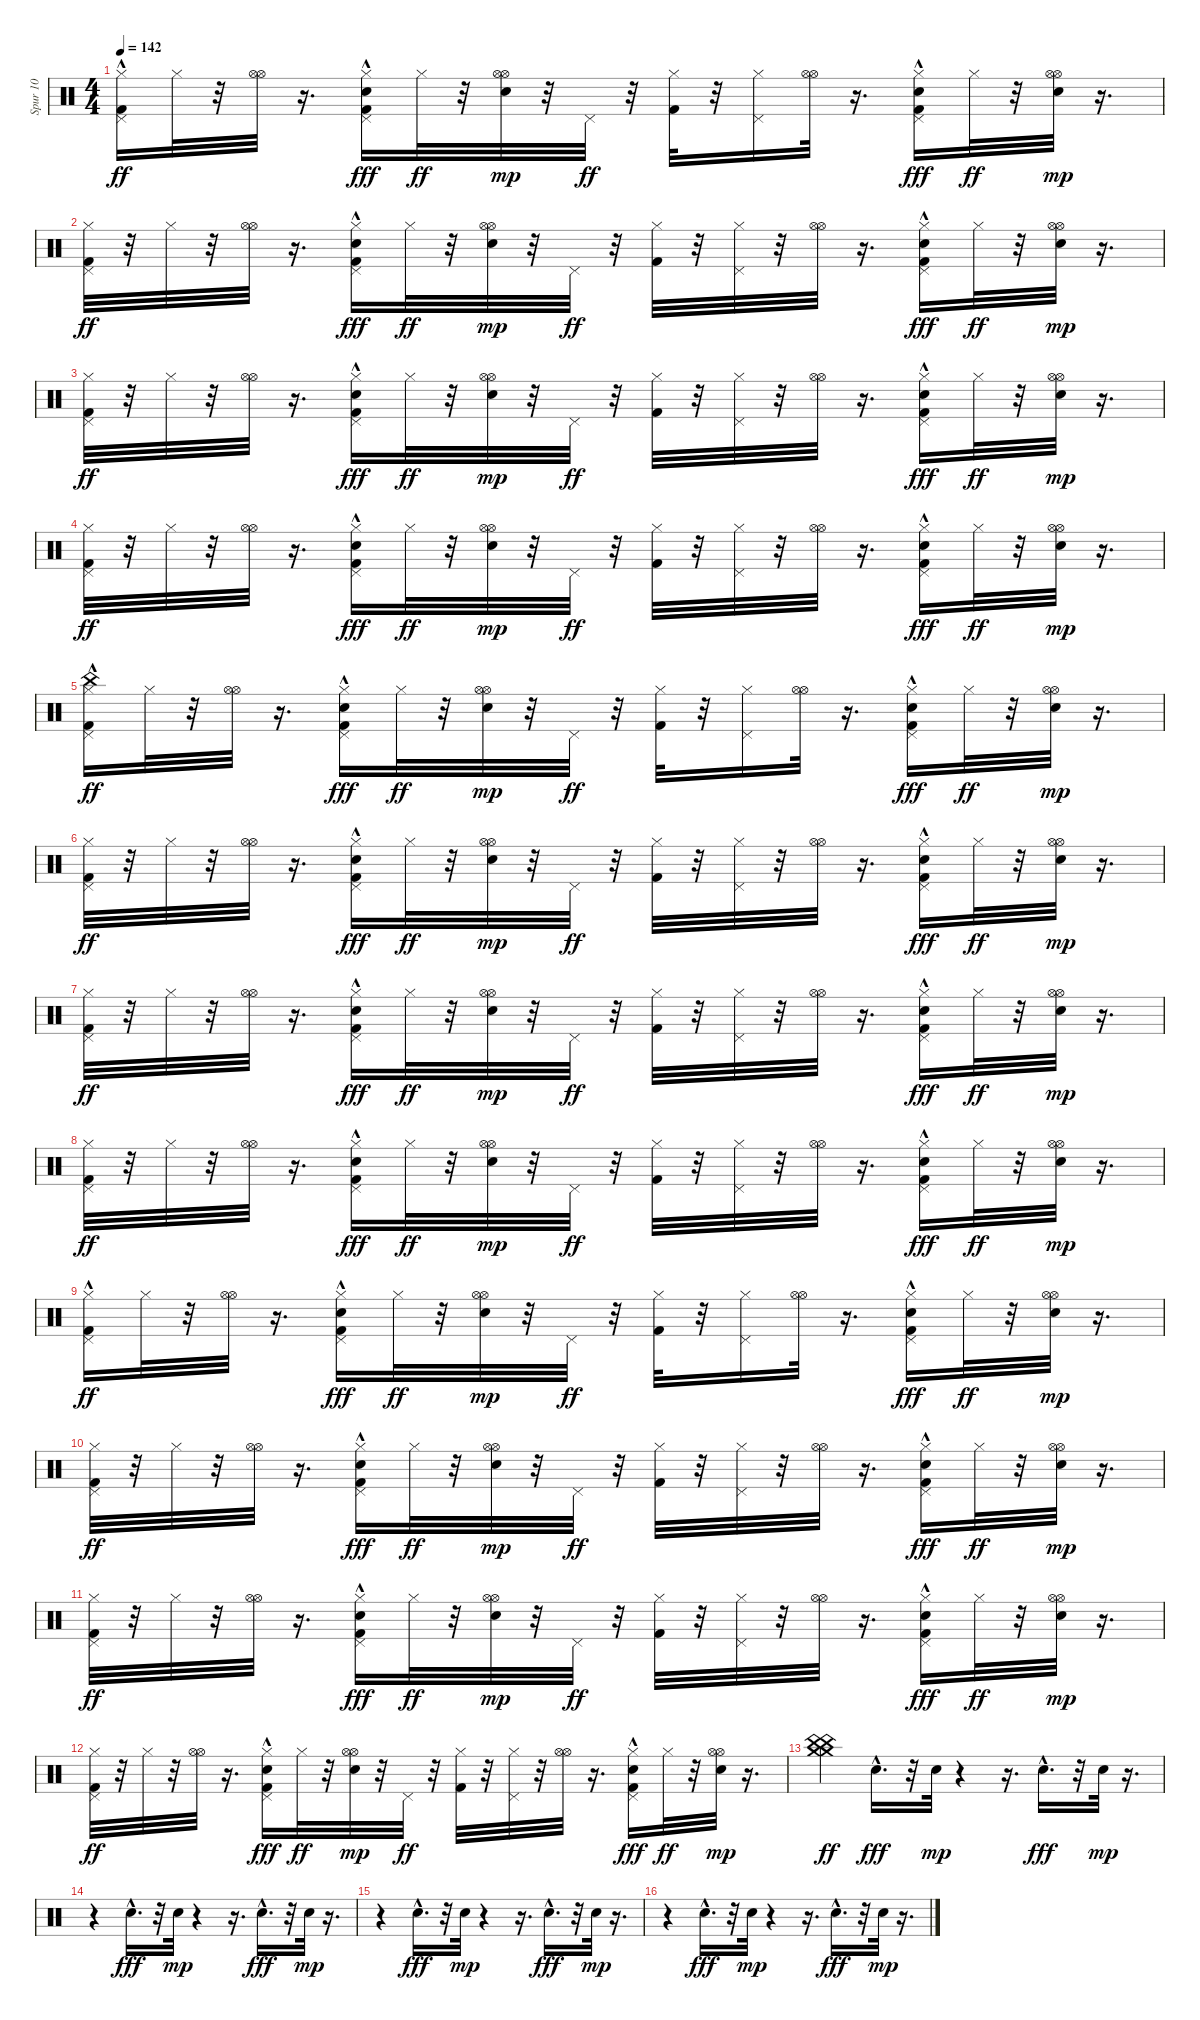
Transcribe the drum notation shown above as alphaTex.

\track ("Spur 10" "Spur 10") {instrument percussion}
\staff {score}
\articulation defaults
\ts (4 4)
\tempo 142
\clef neutral
\ks c
("Kick (hit) 2"{hac} "Hi-Hat (closed)" "Pedal Hi-Hat (hit)").16{dy ff} "Hi-Hat (closed)".32 r.32 ("Hi-Hat (open)" "Hi-Hat (open)").32 r.16{d} ("Kick (hit) 2" "Hi-Hat (closed)" "Pedal Hi-Hat (hit)" "Hand Clap (hit)"{hac}).16{dy fff balance 16} "Hi-Hat (closed)".32{dy ff} r.32 ("Hi-Hat (open)" "Hi-Hat (open)" "Hand Clap (hit)").32{dy mp balance 0} r.32 "Pedal Hi-Hat (hit)".32{dy ff} r.32 ("Kick (hit) 2" "Hi-Hat (closed)").32 r.32 ("Hi-Hat (closed)" "Pedal Hi-Hat (hit)").16 ("Hi-Hat (open)" "Hi-Hat (open)").32 r.16{d} ("Kick (hit) 2" "Hi-Hat (closed)" "Pedal Hi-Hat (hit)" "Hand Clap (hit)"{hac}).16{dy fff balance 16} "Hi-Hat (closed)".32{dy ff} r.32 ("Hi-Hat (open)" "Hi-Hat (open)" "Hand Clap (hit)").32{dy mp balance 0} r.16{d} |
("Kick (hit) 2" "Hi-Hat (closed)" "Pedal Hi-Hat (hit)").32{dy ff} r.32 "Hi-Hat (closed)".32 r.32 ("Hi-Hat (open)" "Hi-Hat (open)").32 r.16{d} ("Kick (hit) 2" "Hi-Hat (closed)" "Pedal Hi-Hat (hit)" "Hand Clap (hit)"{hac}).16{dy fff balance 16} "Hi-Hat (closed)".32{dy ff} r.32 ("Hi-Hat (open)" "Hi-Hat (open)" "Hand Clap (hit)").32{dy mp balance 0} r.32 "Pedal Hi-Hat (hit)".32{dy ff} r.32 ("Kick (hit) 2" "Hi-Hat (closed)").32 r.32 ("Hi-Hat (closed)" "Pedal Hi-Hat (hit)").32 r.32 ("Hi-Hat (open)" "Hi-Hat (open)").32 r.16{d} ("Kick (hit) 2" "Hi-Hat (closed)" "Pedal Hi-Hat (hit)" "Hand Clap (hit)"{hac}).16{dy fff balance 16} "Hi-Hat (closed)".32{dy ff} r.32 ("Hi-Hat (open)" "Hi-Hat (open)" "Hand Clap (hit)").32{dy mp balance 0} r.16{d} |
("Kick (hit) 2" "Hi-Hat (closed)" "Pedal Hi-Hat (hit)").32{dy ff} r.32 "Hi-Hat (closed)".32 r.32 ("Hi-Hat (open)" "Hi-Hat (open)").32 r.16{d} ("Kick (hit) 2" "Hi-Hat (closed)" "Pedal Hi-Hat (hit)" "Hand Clap (hit)"{hac}).16{dy fff balance 16} "Hi-Hat (closed)".32{dy ff} r.32 ("Hi-Hat (open)" "Hi-Hat (open)" "Hand Clap (hit)").32{dy mp balance 0} r.32 "Pedal Hi-Hat (hit)".32{dy ff} r.32 ("Kick (hit) 2" "Hi-Hat (closed)").32 r.32 ("Hi-Hat (closed)" "Pedal Hi-Hat (hit)").32 r.32 ("Hi-Hat (open)" "Hi-Hat (open)").32 r.16{d} ("Kick (hit) 2" "Hi-Hat (closed)" "Pedal Hi-Hat (hit)" "Hand Clap (hit)"{hac}).16{dy fff balance 16} "Hi-Hat (closed)".32{dy ff} r.32 ("Hi-Hat (open)" "Hi-Hat (open)" "Hand Clap (hit)").32{dy mp balance 0} r.16{d} |
("Kick (hit) 2" "Hi-Hat (closed)" "Pedal Hi-Hat (hit)").32{dy ff} r.32 "Hi-Hat (closed)".32 r.32 ("Hi-Hat (open)" "Hi-Hat (open)").32 r.16{d} ("Kick (hit) 2" "Hi-Hat (closed)" "Pedal Hi-Hat (hit)" "Hand Clap (hit)"{hac}).16{dy fff balance 16} "Hi-Hat (closed)".32{dy ff} r.32 ("Hi-Hat (open)" "Hi-Hat (open)" "Hand Clap (hit)").32{dy mp balance 0} r.32 "Pedal Hi-Hat (hit)".32{dy ff} r.32 ("Kick (hit) 2" "Hi-Hat (closed)").32 r.32 ("Hi-Hat (closed)" "Pedal Hi-Hat (hit)").32 r.32 ("Hi-Hat (open)" "Hi-Hat (open)").32 r.16{d} ("Kick (hit) 2" "Hi-Hat (closed)" "Pedal Hi-Hat (hit)" "Hand Clap (hit)"{hac}).16{dy fff balance 16} "Hi-Hat (closed)".32{dy ff} r.32 ("Hi-Hat (open)" "Hi-Hat (open)" "Hand Clap (hit)").32{dy mp balance 0} r.16{d} |
("Kick (hit) 2"{hac} "Hi-Hat (closed)" "Pedal Hi-Hat (hit)" "China (hit)").16{dy ff} "Hi-Hat (closed)".32 r.32 ("Hi-Hat (open)" "Hi-Hat (open)").32 r.16{d} ("Kick (hit) 2" "Hi-Hat (closed)" "Pedal Hi-Hat (hit)" "Hand Clap (hit)"{hac}).16{dy fff balance 16} "Hi-Hat (closed)".32{dy ff} r.32 ("Hi-Hat (open)" "Hi-Hat (open)" "Hand Clap (hit)").32{dy mp balance 0} r.32 "Pedal Hi-Hat (hit)".32{dy ff} r.32 ("Kick (hit) 2" "Hi-Hat (closed)").32 r.32 ("Hi-Hat (closed)" "Pedal Hi-Hat (hit)").16 ("Hi-Hat (open)" "Hi-Hat (open)").32 r.16{d} ("Kick (hit) 2" "Hi-Hat (closed)" "Pedal Hi-Hat (hit)" "Hand Clap (hit)"{hac}).16{dy fff balance 16} "Hi-Hat (closed)".32{dy ff} r.32 ("Hi-Hat (open)" "Hi-Hat (open)" "Hand Clap (hit)").32{dy mp balance 0} r.16{d} |
("Kick (hit) 2" "Hi-Hat (closed)" "Pedal Hi-Hat (hit)").32{dy ff} r.32 "Hi-Hat (closed)".32 r.32 ("Hi-Hat (open)" "Hi-Hat (open)").32 r.16{d} ("Kick (hit) 2" "Hi-Hat (closed)" "Pedal Hi-Hat (hit)" "Hand Clap (hit)"{hac}).16{dy fff balance 16} "Hi-Hat (closed)".32{dy ff} r.32 ("Hi-Hat (open)" "Hi-Hat (open)" "Hand Clap (hit)").32{dy mp balance 0} r.32 "Pedal Hi-Hat (hit)".32{dy ff} r.32 ("Kick (hit) 2" "Hi-Hat (closed)").32 r.32 ("Hi-Hat (closed)" "Pedal Hi-Hat (hit)").32 r.32 ("Hi-Hat (open)" "Hi-Hat (open)").32 r.16{d} ("Kick (hit) 2" "Hi-Hat (closed)" "Pedal Hi-Hat (hit)" "Hand Clap (hit)"{hac}).16{dy fff balance 16} "Hi-Hat (closed)".32{dy ff} r.32 ("Hi-Hat (open)" "Hi-Hat (open)" "Hand Clap (hit)").32{dy mp balance 0} r.16{d} |
("Kick (hit) 2" "Hi-Hat (closed)" "Pedal Hi-Hat (hit)").32{dy ff} r.32 "Hi-Hat (closed)".32 r.32 ("Hi-Hat (open)" "Hi-Hat (open)").32 r.16{d} ("Kick (hit) 2" "Hi-Hat (closed)" "Pedal Hi-Hat (hit)" "Hand Clap (hit)"{hac}).16{dy fff balance 16} "Hi-Hat (closed)".32{dy ff} r.32 ("Hi-Hat (open)" "Hi-Hat (open)" "Hand Clap (hit)").32{dy mp balance 0} r.32 "Pedal Hi-Hat (hit)".32{dy ff} r.32 ("Kick (hit) 2" "Hi-Hat (closed)").32 r.32 ("Hi-Hat (closed)" "Pedal Hi-Hat (hit)").32 r.32 ("Hi-Hat (open)" "Hi-Hat (open)").32 r.16{d} ("Kick (hit) 2" "Hi-Hat (closed)" "Pedal Hi-Hat (hit)" "Hand Clap (hit)"{hac}).16{dy fff balance 16} "Hi-Hat (closed)".32{dy ff} r.32 ("Hi-Hat (open)" "Hi-Hat (open)" "Hand Clap (hit)").32{dy mp balance 0} r.16{d} |
("Kick (hit) 2" "Hi-Hat (closed)" "Pedal Hi-Hat (hit)").32{dy ff} r.32 "Hi-Hat (closed)".32 r.32 ("Hi-Hat (open)" "Hi-Hat (open)").32 r.16{d} ("Kick (hit) 2" "Hi-Hat (closed)" "Pedal Hi-Hat (hit)" "Hand Clap (hit)"{hac}).16{dy fff balance 16} "Hi-Hat (closed)".32{dy ff} r.32 ("Hi-Hat (open)" "Hi-Hat (open)" "Hand Clap (hit)").32{dy mp balance 0} r.32 "Pedal Hi-Hat (hit)".32{dy ff} r.32 ("Kick (hit) 2" "Hi-Hat (closed)").32 r.32 ("Hi-Hat (closed)" "Pedal Hi-Hat (hit)").32 r.32 ("Hi-Hat (open)" "Hi-Hat (open)").32 r.16{d} ("Kick (hit) 2" "Hi-Hat (closed)" "Pedal Hi-Hat (hit)" "Hand Clap (hit)"{hac}).16{dy fff balance 16} "Hi-Hat (closed)".32{dy ff} r.32 ("Hi-Hat (open)" "Hi-Hat (open)" "Hand Clap (hit)").32{dy mp balance 0} r.16{d} |
("Kick (hit) 2"{hac} "Hi-Hat (closed)" "Pedal Hi-Hat (hit)").16{dy ff} "Hi-Hat (closed)".32 r.32 ("Hi-Hat (open)" "Hi-Hat (open)").32 r.16{d} ("Kick (hit) 2" "Hi-Hat (closed)" "Pedal Hi-Hat (hit)" "Hand Clap (hit)"{hac}).16{dy fff balance 16} "Hi-Hat (closed)".32{dy ff} r.32 ("Hi-Hat (open)" "Hi-Hat (open)" "Hand Clap (hit)").32{dy mp balance 0} r.32 "Pedal Hi-Hat (hit)".32{dy ff} r.32 ("Kick (hit) 2" "Hi-Hat (closed)").32 r.32 ("Hi-Hat (closed)" "Pedal Hi-Hat (hit)").16 ("Hi-Hat (open)" "Hi-Hat (open)").32 r.16{d} ("Kick (hit) 2" "Hi-Hat (closed)" "Pedal Hi-Hat (hit)" "Hand Clap (hit)"{hac}).16{dy fff balance 16} "Hi-Hat (closed)".32{dy ff} r.32 ("Hi-Hat (open)" "Hi-Hat (open)" "Hand Clap (hit)").32{dy mp balance 0} r.16{d} |
("Kick (hit) 2" "Hi-Hat (closed)" "Pedal Hi-Hat (hit)").32{dy ff} r.32 "Hi-Hat (closed)".32 r.32 ("Hi-Hat (open)" "Hi-Hat (open)").32 r.16{d} ("Kick (hit) 2" "Hi-Hat (closed)" "Pedal Hi-Hat (hit)" "Hand Clap (hit)"{hac}).16{dy fff balance 16} "Hi-Hat (closed)".32{dy ff} r.32 ("Hi-Hat (open)" "Hi-Hat (open)" "Hand Clap (hit)").32{dy mp balance 0} r.32 "Pedal Hi-Hat (hit)".32{dy ff} r.32 ("Kick (hit) 2" "Hi-Hat (closed)").32 r.32 ("Hi-Hat (closed)" "Pedal Hi-Hat (hit)").32 r.32 ("Hi-Hat (open)" "Hi-Hat (open)").32 r.16{d} ("Kick (hit) 2" "Hi-Hat (closed)" "Pedal Hi-Hat (hit)" "Hand Clap (hit)"{hac}).16{dy fff balance 16} "Hi-Hat (closed)".32{dy ff} r.32 ("Hi-Hat (open)" "Hi-Hat (open)" "Hand Clap (hit)").32{dy mp balance 0} r.16{d} |
("Kick (hit) 2" "Hi-Hat (closed)" "Pedal Hi-Hat (hit)").32{dy ff} r.32 "Hi-Hat (closed)".32 r.32 ("Hi-Hat (open)" "Hi-Hat (open)").32 r.16{d} ("Kick (hit) 2" "Hi-Hat (closed)" "Pedal Hi-Hat (hit)" "Hand Clap (hit)"{hac}).16{dy fff balance 16} "Hi-Hat (closed)".32{dy ff} r.32 ("Hi-Hat (open)" "Hi-Hat (open)" "Hand Clap (hit)").32{dy mp balance 0} r.32 "Pedal Hi-Hat (hit)".32{dy ff} r.32 ("Kick (hit) 2" "Hi-Hat (closed)").32 r.32 ("Hi-Hat (closed)" "Pedal Hi-Hat (hit)").32 r.32 ("Hi-Hat (open)" "Hi-Hat (open)").32 r.16{d} ("Kick (hit) 2" "Hi-Hat (closed)" "Pedal Hi-Hat (hit)" "Hand Clap (hit)"{hac}).16{dy fff balance 16} "Hi-Hat (closed)".32{dy ff} r.32 ("Hi-Hat (open)" "Hi-Hat (open)" "Hand Clap (hit)").32{dy mp balance 0} r.16{d} |
("Kick (hit) 2" "Hi-Hat (closed)" "Pedal Hi-Hat (hit)").32{dy ff} r.32 "Hi-Hat (closed)".32 r.32 ("Hi-Hat (open)" "Hi-Hat (open)").32 r.16{d} ("Kick (hit) 2" "Hi-Hat (closed)" "Pedal Hi-Hat (hit)" "Hand Clap (hit)"{hac}).16{dy fff balance 16} "Hi-Hat (closed)".32{dy ff} r.32 ("Hi-Hat (open)" "Hi-Hat (open)" "Hand Clap (hit)").32{dy mp balance 0} r.32 "Pedal Hi-Hat (hit)".32{dy ff} r.32 ("Kick (hit) 2" "Hi-Hat (closed)").32 r.32 ("Hi-Hat (closed)" "Pedal Hi-Hat (hit)").32 r.32 ("Hi-Hat (open)" "Hi-Hat (open)").32 r.16{d} ("Kick (hit) 2" "Hi-Hat (closed)" "Pedal Hi-Hat (hit)" "Hand Clap (hit)"{hac}).16{dy fff balance 16} "Hi-Hat (closed)".32{dy ff} r.32 ("Hi-Hat (open)" "Hi-Hat (open)" "Hand Clap (hit)").32{dy mp balance 0} r.16{d} |
("China (hit)" "Crash medium (hit)" "China (hit)" "Crash medium (hit)").4{dy ff} "Hand Clap (hit)"{hac}.16{d dy fff balance 16} r.32 "Hand Clap (hit)".32{dy mp balance 0} r.4 r.16{d} "Hand Clap (hit)"{hac}.16{d dy fff balance 16} r.32 "Hand Clap (hit)".32{dy mp balance 0} r.16{d} |
r.4 "Hand Clap (hit)"{hac}.16{d dy fff balance 16} r.32 "Hand Clap (hit)".32{dy mp balance 0} r.4 r.16{d} "Hand Clap (hit)"{hac}.16{d dy fff balance 16} r.32 "Hand Clap (hit)".32{dy mp balance 0} r.16{d} |
r.4 "Hand Clap (hit)"{hac}.16{d dy fff balance 16} r.32 "Hand Clap (hit)".32{dy mp balance 0} r.4 r.16{d} "Hand Clap (hit)"{hac}.16{d dy fff balance 16} r.32 "Hand Clap (hit)".32{dy mp balance 0} r.16{d} |
r.4 "Hand Clap (hit)"{hac}.16{d dy fff balance 16} r.32 "Hand Clap (hit)".32{dy mp balance 0} r.4 r.16{d} "Hand Clap (hit)"{hac}.16{d dy fff balance 16} r.32 "Hand Clap (hit)".32{dy mp balance 0} r.16{d}
